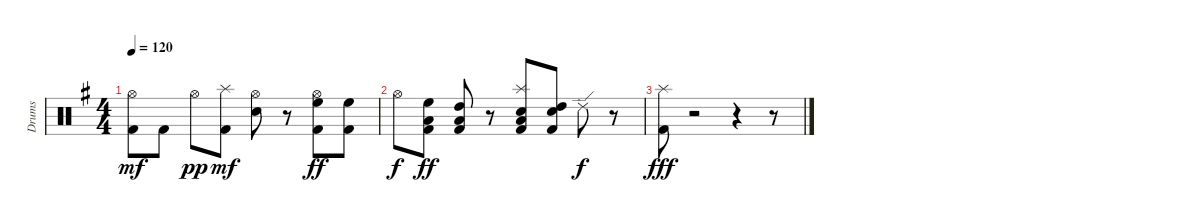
\track ("Drums" "Drums") {instrument percussion}
\staff {score}
\articulation defaults
\ts (4 4)
\tempo 120
\clef neutral
\ks eminor
("Kick (hit) 2" "Hi-Hat (open)").8{dy mf} "Kick (hit) 2".8 "Hi-Hat (open)".8{dy pp} ("Kick (hit) 2" "Splash (hit)").8{dy mf} ("Snare (hit) 2" "Hi-Hat (open)").8 r.8 ("Hi-Hat (open)" "Kick (hit) 2" "High Floor Tom (hit)").8{dy ff} ("Kick (hit) 2" "High Floor Tom (hit)").8 |
"Hi-Hat (open)".8{dy f} ("Kick (hit) 2" "Low Floor Tom (hit)" "High Floor Tom (hit)").8{dy ff} ("Kick (hit) 2" "High Tom (hit)" "Low Floor Tom (hit)").8 r.8 ("Kick (hit) 2" "Snare (hit) 2" "Splash (hit)" "Low Floor Tom (hit)").8 ("Kick (hit) 2" "Snare (hit) 2" "High Tom (hit)").8 "Ride (edge) 2".8{dy f} r.8 |
("Kick (hit) 2" "Splash (hit)").8{dy fff} r.2 r.4 r.8
